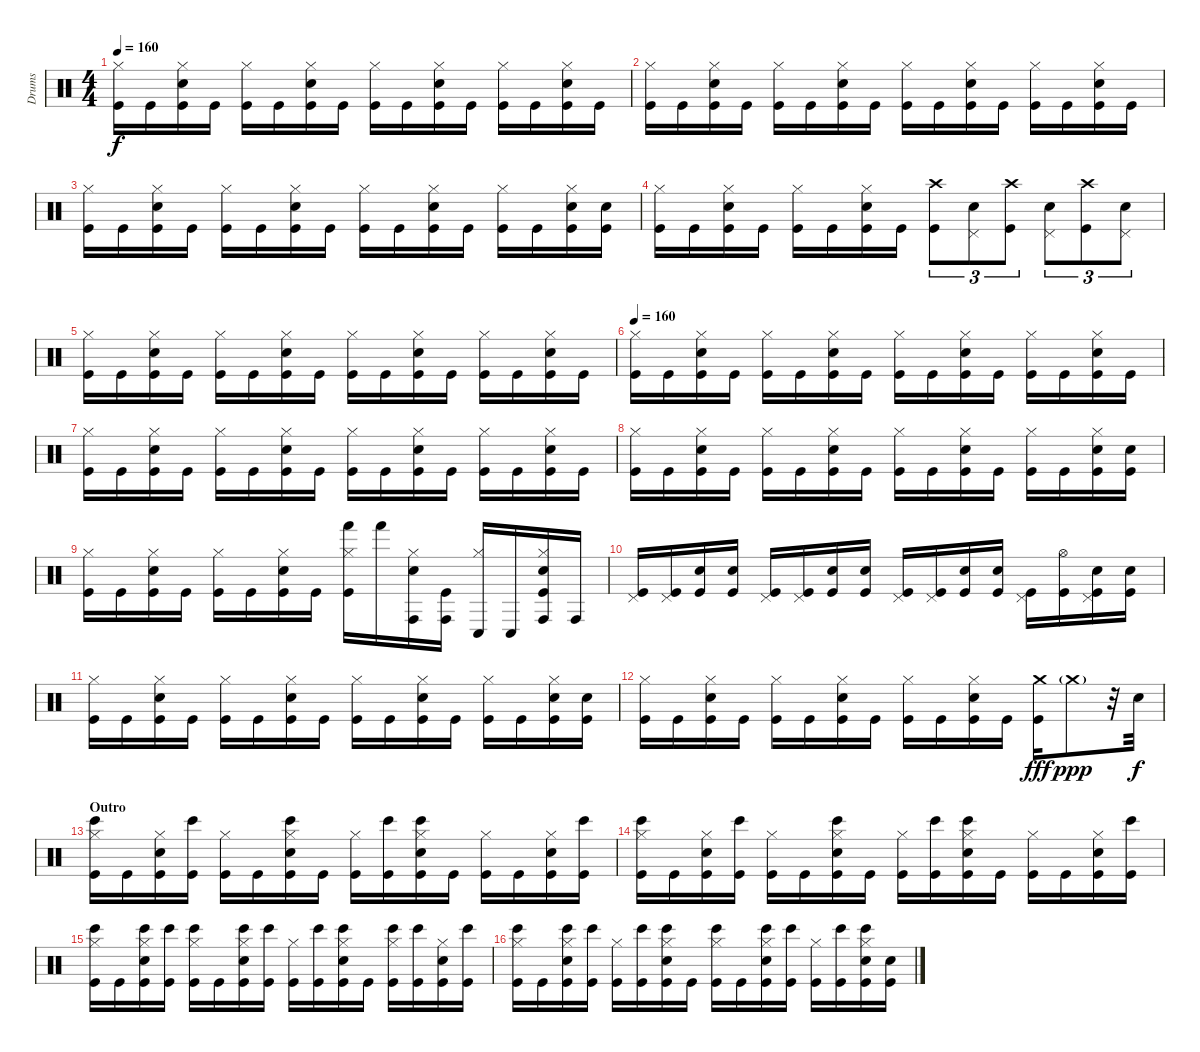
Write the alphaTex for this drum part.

\track ("Drums" "Drums") {instrument percussion}
\staff {score}
\articulation defaults
\ts (4 4)
\tempo 160
\clef neutral
\ks c
("Hi-Hat (closed)" "Kick (hit)").16{dy f} "Kick (hit)".16 ("Hi-Hat (closed)" "Electric Snare (hit)" "Kick (hit)").16 "Kick (hit)".16 ("Hi-Hat (closed)" "Kick (hit)").16 "Kick (hit)".16 ("Hi-Hat (closed)" "Electric Snare (hit)" "Kick (hit)").16 "Kick (hit)".16 ("Hi-Hat (closed)" "Kick (hit)").16 "Kick (hit)".16 ("Hi-Hat (closed)" "Electric Snare (hit)" "Kick (hit)").16 "Kick (hit)".16 ("Hi-Hat (closed)" "Kick (hit)").16 "Kick (hit)".16 ("Hi-Hat (closed)" "Electric Snare (hit)" "Kick (hit)").16 "Kick (hit)".16 |
("Hi-Hat (closed)" "Kick (hit)").16 "Kick (hit)".16 ("Hi-Hat (closed)" "Electric Snare (hit)" "Kick (hit)").16 "Kick (hit)".16 ("Hi-Hat (closed)" "Kick (hit)").16 "Kick (hit)".16 ("Hi-Hat (closed)" "Electric Snare (hit)" "Kick (hit)").16 "Kick (hit)".16 ("Hi-Hat (closed)" "Kick (hit)").16 "Kick (hit)".16 ("Hi-Hat (closed)" "Electric Snare (hit)" "Kick (hit)").16 "Kick (hit)".16 ("Hi-Hat (closed)" "Kick (hit)").16 "Kick (hit)".16 ("Hi-Hat (closed)" "Electric Snare (hit)" "Kick (hit)").16 "Kick (hit)".16 |
("Hi-Hat (closed)" "Kick (hit)").16 "Kick (hit)".16 ("Hi-Hat (closed)" "Electric Snare (hit)" "Kick (hit)").16 "Kick (hit)".16 ("Hi-Hat (closed)" "Kick (hit)").16 "Kick (hit)".16 ("Hi-Hat (closed)" "Electric Snare (hit)" "Kick (hit)").16 "Kick (hit)".16 ("Hi-Hat (closed)" "Kick (hit)").16 "Kick (hit)".16 ("Hi-Hat (closed)" "Electric Snare (hit)" "Kick (hit)").16 "Kick (hit)".16 ("Hi-Hat (closed)" "Kick (hit)").16 "Kick (hit)".16 ("Hi-Hat (closed)" "Electric Snare (hit)" "Kick (hit)").16 ("Electric Snare (hit)" "Kick (hit)").16 |
("Hi-Hat (closed)" "Kick (hit)").16 "Kick (hit)".16 ("Hi-Hat (closed)" "Electric Snare (hit)" "Kick (hit)").16 "Kick (hit)".16 ("Hi-Hat (closed)" "Kick (hit)").16 "Kick (hit)".16 ("Hi-Hat (closed)" "Electric Snare (hit)" "Kick (hit)").16 "Kick (hit)".16 ("Crash high (hit)" "Kick (hit)").8{tu (3 2)} ("Pedal Hi-Hat (hit)" "Electric Snare (hit)").8{tu (3 2)} ("Crash high (hit)" "Kick (hit)").8{tu (3 2)} ("Pedal Hi-Hat (hit)" "Electric Snare (hit)").8{tu (3 2)} ("Crash high (hit)" "Kick (hit)").8{tu (3 2)} ("Pedal Hi-Hat (hit)" "Electric Snare (hit)").8{tu (3 2)} |
("Hi-Hat (closed)" "Kick (hit)").16 "Kick (hit)".16 ("Hi-Hat (closed)" "Electric Snare (hit)" "Kick (hit)").16 "Kick (hit)".16 ("Hi-Hat (closed)" "Kick (hit)").16 "Kick (hit)".16 ("Hi-Hat (closed)" "Electric Snare (hit)" "Kick (hit)").16 "Kick (hit)".16 ("Hi-Hat (closed)" "Kick (hit)").16 "Kick (hit)".16 ("Hi-Hat (closed)" "Electric Snare (hit)" "Kick (hit)").16 "Kick (hit)".16 ("Hi-Hat (closed)" "Kick (hit)").16 "Kick (hit)".16 ("Hi-Hat (closed)" "Electric Snare (hit)" "Kick (hit)").16 "Kick (hit)".16 |
\tempo 160
("Hi-Hat (closed)" "Kick (hit)").16 "Kick (hit)".16 ("Hi-Hat (closed)" "Electric Snare (hit)" "Kick (hit)").16 "Kick (hit)".16 ("Hi-Hat (closed)" "Kick (hit)").16 "Kick (hit)".16 ("Hi-Hat (closed)" "Electric Snare (hit)" "Kick (hit)").16 "Kick (hit)".16 ("Hi-Hat (closed)" "Kick (hit)").16 "Kick (hit)".16 ("Hi-Hat (closed)" "Electric Snare (hit)" "Kick (hit)").16 "Kick (hit)".16 ("Hi-Hat (closed)" "Kick (hit)").16 "Kick (hit)".16 ("Hi-Hat (closed)" "Electric Snare (hit)" "Kick (hit)").16 "Kick (hit)".16 |
("Hi-Hat (closed)" "Kick (hit)").16 "Kick (hit)".16 ("Hi-Hat (closed)" "Electric Snare (hit)" "Kick (hit)").16 "Kick (hit)".16 ("Hi-Hat (closed)" "Kick (hit)").16 "Kick (hit)".16 ("Hi-Hat (closed)" "Electric Snare (hit)" "Kick (hit)").16 "Kick (hit)".16 ("Hi-Hat (closed)" "Kick (hit)").16 "Kick (hit)".16 ("Hi-Hat (closed)" "Electric Snare (hit)" "Kick (hit)").16 "Kick (hit)".16 ("Hi-Hat (closed)" "Kick (hit)").16 "Kick (hit)".16 ("Hi-Hat (closed)" "Electric Snare (hit)" "Kick (hit)").16 "Kick (hit)".16 |
("Hi-Hat (closed)" "Kick (hit)").16 "Kick (hit)".16 ("Hi-Hat (closed)" "Electric Snare (hit)" "Kick (hit)").16 "Kick (hit)".16 ("Hi-Hat (closed)" "Kick (hit)").16 "Kick (hit)".16 ("Hi-Hat (closed)" "Electric Snare (hit)" "Kick (hit)").16 "Kick (hit)".16 ("Hi-Hat (closed)" "Kick (hit)").16 "Kick (hit)".16 ("Hi-Hat (closed)" "Electric Snare (hit)" "Kick (hit)").16 "Kick (hit)".16 ("Hi-Hat (closed)" "Kick (hit)").16 "Kick (hit)".16 ("Hi-Hat (closed)" "Electric Snare (hit)" "Kick (hit)").16 ("Electric Snare (hit)" "Kick (hit)").16 |
("Hi-Hat (closed)" "Kick (hit)").16 "Kick (hit)".16 ("Hi-Hat (closed)" "Electric Snare (hit)" "Kick (hit)").16 "Kick (hit)".16 ("Hi-Hat (closed)" "Kick (hit)").16 "Kick (hit)".16 ("Hi-Hat (closed)" "Electric Snare (hit)" "Kick (hit)").16 "Kick (hit)".16 ("Hi-Hat (closed)" "Hand (hit)" "Kick (hit)").16 "Hand (hit)".16 ("Hi-Hat (closed)" "Electric Snare (hit)" "Conga high (hit)").16 ("Conga high (hit)" "Kick (hit)").16 ("Hi-Hat (closed)" "Conga low (hit)").16 "Conga low (hit)".16 ("Hi-Hat (closed)" "Electric Snare (hit)" "Conga high (hit)" "Kick (hit)").16 "Conga high (hit)".16 |
("Pedal Hi-Hat (hit)" "Kick (hit)").16 ("Pedal Hi-Hat (hit)" "Kick (hit)").16 ("Electric Snare (hit)" "Kick (hit)").16 ("Electric Snare (hit)" "Kick (hit)").16 ("Pedal Hi-Hat (hit)" "Kick (hit)").16 ("Pedal Hi-Hat (hit)" "Kick (hit)").16 ("Electric Snare (hit)" "Kick (hit)").16 ("Electric Snare (hit)" "Kick (hit)").16 ("Pedal Hi-Hat (hit)" "Kick (hit)").16 ("Pedal Hi-Hat (hit)" "Kick (hit)").16 ("Electric Snare (hit)" "Kick (hit)").16 ("Electric Snare (hit)" "Kick (hit)").16 ("Pedal Hi-Hat (hit)" "Kick (hit)").16 ("Hi-Hat (open)" "Kick (hit)").16 ("Pedal Hi-Hat (hit)" "Electric Snare (hit)" "Kick (hit)").16 ("Electric Snare (hit)" "Kick (hit)").16 |
("Hi-Hat (closed)" "Kick (hit)").16 "Kick (hit)".16 ("Hi-Hat (closed)" "Electric Snare (hit)" "Kick (hit)").16 "Kick (hit)".16 ("Hi-Hat (closed)" "Kick (hit)").16 "Kick (hit)".16 ("Hi-Hat (closed)" "Electric Snare (hit)" "Kick (hit)").16 "Kick (hit)".16 ("Hi-Hat (closed)" "Kick (hit)").16 "Kick (hit)".16 ("Hi-Hat (closed)" "Electric Snare (hit)" "Kick (hit)").16 "Kick (hit)".16 ("Hi-Hat (closed)" "Kick (hit)").16 "Kick (hit)".16 ("Hi-Hat (closed)" "Electric Snare (hit)" "Kick (hit)").16 ("Electric Snare (hit)" "Kick (hit)").16 |
("Hi-Hat (closed)" "Kick (hit)").16 "Kick (hit)".16 ("Hi-Hat (closed)" "Electric Snare (hit)" "Kick (hit)").16 "Kick (hit)".16 ("Hi-Hat (closed)" "Kick (hit)").16 "Kick (hit)".16 ("Hi-Hat (closed)" "Electric Snare (hit)" "Kick (hit)").16 "Kick (hit)".16 ("Hi-Hat (closed)" "Kick (hit)").16 "Kick (hit)".16 ("Hi-Hat (closed)" "Electric Snare (hit)" "Kick (hit)").16 "Kick (hit)".16 ("Crash medium (hit)" "Kick (hit)").16{dy fff} "Crash medium (hit)"{g}.8{dy ppp} r.32 "Electric Snare (hit)".32{dy f} |
\section ("" "Outro")
("Hi-Hat (closed)" "Bongo High (hit)" "Kick (hit)").16 "Kick (hit)".16 ("Hi-Hat (closed)" "Electric Snare (hit)" "Kick (hit)").16 ("Bongo High (hit)" "Kick (hit)").16 ("Hi-Hat (closed)" "Kick (hit)").16 "Kick (hit)".16 ("Hi-Hat (closed)" "Electric Snare (hit)" "Bongo High (hit)" "Kick (hit)").16 "Kick (hit)".16 ("Hi-Hat (closed)" "Kick (hit)").16 ("Bongo High (hit)" "Kick (hit)").16 ("Hi-Hat (closed)" "Electric Snare (hit)" "Bongo High (hit)" "Kick (hit)").16 "Kick (hit)".16 ("Hi-Hat (closed)" "Kick (hit)").16 "Kick (hit)".16 ("Hi-Hat (closed)" "Electric Snare (hit)" "Kick (hit)").16 ("Bongo High (hit)" "Kick (hit)").16 |
("Hi-Hat (closed)" "Bongo High (hit)" "Kick (hit)").16 "Kick (hit)".16 ("Hi-Hat (closed)" "Electric Snare (hit)" "Kick (hit)").16 ("Bongo High (hit)" "Kick (hit)").16 ("Hi-Hat (closed)" "Kick (hit)").16 "Kick (hit)".16 ("Hi-Hat (closed)" "Electric Snare (hit)" "Bongo High (hit)" "Kick (hit)").16 "Kick (hit)".16 ("Hi-Hat (closed)" "Kick (hit)").16 ("Bongo High (hit)" "Kick (hit)").16 ("Hi-Hat (closed)" "Electric Snare (hit)" "Bongo High (hit)" "Kick (hit)").16 "Kick (hit)".16 ("Hi-Hat (closed)" "Kick (hit)").16 "Kick (hit)".16 ("Hi-Hat (closed)" "Electric Snare (hit)" "Kick (hit)").16 ("Bongo High (hit)" "Kick (hit)").16 |
("Hi-Hat (closed)" "Bongo High (hit)" "Kick (hit)").16 "Kick (hit)".16 ("Hi-Hat (closed)" "Electric Snare (hit)" "Bongo High (hit)" "Kick (hit)").16 ("Bongo High (hit)" "Kick (hit)").16 ("Hi-Hat (closed)" "Bongo High (hit)" "Kick (hit)").16 "Kick (hit)".16 ("Hi-Hat (closed)" "Electric Snare (hit)" "Bongo High (hit)" "Kick (hit)").16 ("Bongo High (hit)" "Kick (hit)").16 ("Hi-Hat (closed)" "Kick (hit)").16 ("Bongo High (hit)" "Kick (hit)").16 ("Hi-Hat (closed)" "Electric Snare (hit)" "Bongo High (hit)" "Kick (hit)").16 "Kick (hit)".16 ("Hi-Hat (closed)" "Bongo High (hit)" "Kick (hit)").16 ("Bongo High (hit)" "Kick (hit)").16 ("Hi-Hat (closed)" "Electric Snare (hit)" "Kick (hit)").16 ("Bongo High (hit)" "Kick (hit)").16 |
("Hi-Hat (closed)" "Bongo High (hit)" "Kick (hit)").16 "Kick (hit)".16 ("Hi-Hat (closed)" "Electric Snare (hit)" "Bongo High (hit)" "Kick (hit)").16 ("Bongo High (hit)" "Kick (hit)").16 ("Hi-Hat (closed)" "Kick (hit)").16 ("Bongo High (hit)" "Kick (hit)").16 ("Hi-Hat (closed)" "Electric Snare (hit)" "Bongo High (hit)" "Kick (hit)").16 "Kick (hit)".16 ("Hi-Hat (closed)" "Bongo High (hit)" "Kick (hit)").16 "Kick (hit)".16 ("Hi-Hat (closed)" "Electric Snare (hit)" "Bongo High (hit)" "Kick (hit)").16 ("Bongo High (hit)" "Kick (hit)").16 ("Hi-Hat (closed)" "Kick (hit)").16 ("Bongo High (hit)" "Kick (hit)").16 ("Hi-Hat (closed)" "Electric Snare (hit)" "Bongo High (hit)" "Kick (hit)").16 ("Electric Snare (hit)" "Kick (hit)").16
